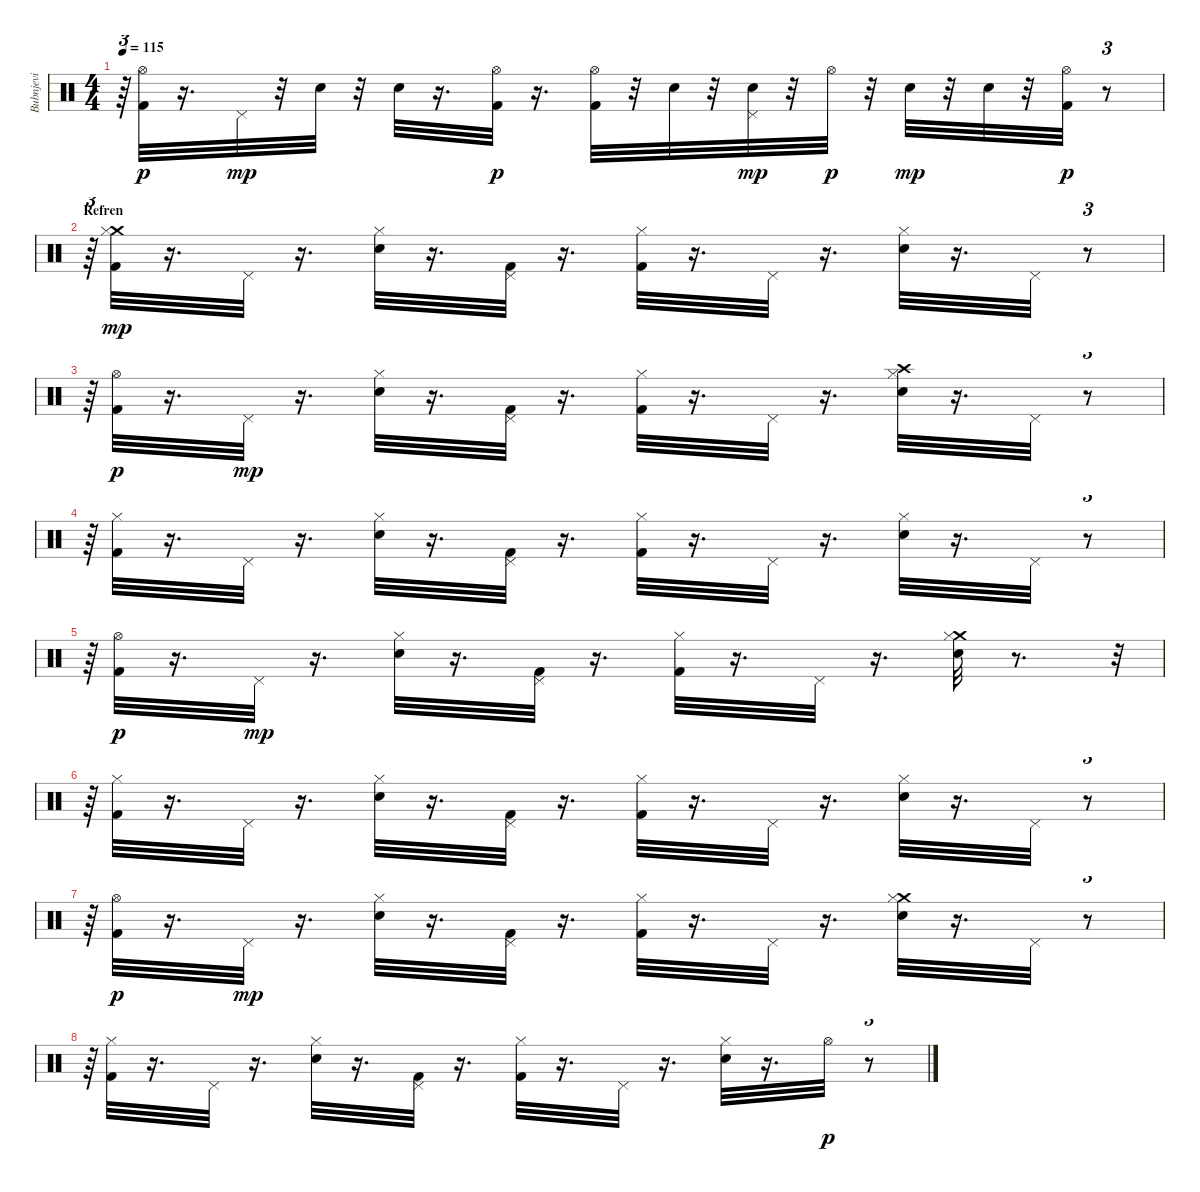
\track ("Bubnjevi" "Bubnjevi") {instrument percussion}
\staff {score}
\articulation defaults
\ts (4 4)
\tempo 115
\clef neutral
\ks c
r.64{tu (3 2) dy mp} ("Hi-Hat (open)" "Kick (hit) 2").32{dy p} r.16{d} "Pedal Hi-Hat (hit)".32{dy mp} r.32 "Electric Snare (hit)".32 r.32 "Electric Snare (hit)".32 r.16{d} ("Hi-Hat (open)" "Kick (hit) 2").32{dy p} r.16{d} ("Hi-Hat (open)" "Kick (hit) 2").32 r.32 "Electric Snare (hit)".32 r.32 ("Pedal Hi-Hat (hit)" "Electric Snare (hit)").32{dy mp} r.32 "Hi-Hat (open)".32{dy p} r.32 "Electric Snare (hit)".32{dy mp} r.32 "Electric Snare (hit)".32 r.32 ("Hi-Hat (open)" "Kick (hit) 2").32{dy p} r.8{tu (3 2)} |
\section ("" "Refren")
r.64{tu (3 2)} ("Crash medium (hit)" "Kick (hit) 2" "Hi-Hat (closed)").32{dy mp} r.16{d} "Pedal Hi-Hat (hit)".32 r.16{d} ("Electric Snare (hit)" "Hi-Hat (closed)").32 r.16{d} ("Kick (hit) 2" "Pedal Hi-Hat (hit)").32 r.16{d} ("Kick (hit) 2" "Hi-Hat (closed)").32 r.16{d} "Pedal Hi-Hat (hit)".32 r.16{d} ("Electric Snare (hit)" "Hi-Hat (closed)").32 r.16{d} "Pedal Hi-Hat (hit)".32 r.8{tu (3 2)} |
r.64{tu (3 2)} ("Hi-Hat (open)" "Kick (hit) 2").32{dy p} r.16{d} "Pedal Hi-Hat (hit)".32{dy mp} r.16{d} ("Hi-Hat (closed)" "Electric Snare (hit)").32 r.16{d} ("Pedal Hi-Hat (hit)" "Kick (hit) 2").32 r.16{d} ("Hi-Hat (closed)" "Kick (hit) 2").32 r.16{d} "Pedal Hi-Hat (hit)".32 r.16{d} ("Crash high (hit)" "Hi-Hat (closed)" "Electric Snare (hit)").32 r.16{d} "Pedal Hi-Hat (hit)".32 r.8{tu (3 2)} |
r.64{tu (3 2)} ("Hi-Hat (closed)" "Kick (hit) 2").32 r.16{d} "Pedal Hi-Hat (hit)".32 r.16{d} ("Hi-Hat (closed)" "Electric Snare (hit)").32 r.16{d} ("Pedal Hi-Hat (hit)" "Kick (hit) 2").32 r.16{d} ("Hi-Hat (closed)" "Kick (hit) 2").32 r.16{d} "Pedal Hi-Hat (hit)".32 r.16{d} ("Hi-Hat (closed)" "Electric Snare (hit)").32 r.16{d} "Pedal Hi-Hat (hit)".32 r.8{tu (3 2)} |
r.64{tu (3 2)} ("Hi-Hat (open)" "Kick (hit) 2").32{dy p} r.16{d} "Pedal Hi-Hat (hit)".32{dy mp} r.16{d} ("Electric Snare (hit)" "Hi-Hat (closed)").32 r.16{d} ("Kick (hit) 2" "Pedal Hi-Hat (hit)").32 r.16{d} ("Kick (hit) 2" "Hi-Hat (closed)").32 r.16{d} "Pedal Hi-Hat (hit)".32 r.16{d} ("Crash medium (hit)" "Electric Snare (hit)" "Hi-Hat (closed)").32 r.8{d} r.32{tu (3 2)} |
r.64{tu (3 2)} ("Hi-Hat (closed)" "Kick (hit) 2").32 r.16{d} "Pedal Hi-Hat (hit)".32 r.16{d} ("Hi-Hat (closed)" "Electric Snare (hit)").32 r.16{d} ("Pedal Hi-Hat (hit)" "Kick (hit) 2").32 r.16{d} ("Hi-Hat (closed)" "Kick (hit) 2").32 r.16{d} "Pedal Hi-Hat (hit)".32 r.16{d} ("Hi-Hat (closed)" "Electric Snare (hit)").32 r.16{d} "Pedal Hi-Hat (hit)".32 r.8{tu (3 2)} |
r.64{tu (3 2)} ("Hi-Hat (open)" "Kick (hit) 2").32{dy p} r.16{d} "Pedal Hi-Hat (hit)".32{dy mp} r.16{d} ("Electric Snare (hit)" "Hi-Hat (closed)").32 r.16{d} ("Kick (hit) 2" "Pedal Hi-Hat (hit)").32 r.16{d} ("Kick (hit) 2" "Hi-Hat (closed)").32 r.16{d} "Pedal Hi-Hat (hit)".32 r.16{d} ("Crash medium (hit)" "Electric Snare (hit)" "Hi-Hat (closed)").32 r.16{d} "Pedal Hi-Hat (hit)".32 r.8{tu (3 2)} |
r.64{tu (3 2)} ("Kick (hit) 2" "Hi-Hat (closed)").32 r.16{d} "Pedal Hi-Hat (hit)".32 r.16{d} ("Electric Snare (hit)" "Hi-Hat (closed)").32 r.16{d} ("Kick (hit) 2" "Pedal Hi-Hat (hit)").32 r.16{d} ("Kick (hit) 2" "Hi-Hat (closed)").32 r.16{d} "Pedal Hi-Hat (hit)".32 r.16{d} ("Electric Snare (hit)" "Hi-Hat (closed)").32 r.16{d} "Hi-Hat (open)".32{dy p} r.8{tu (3 2)}
